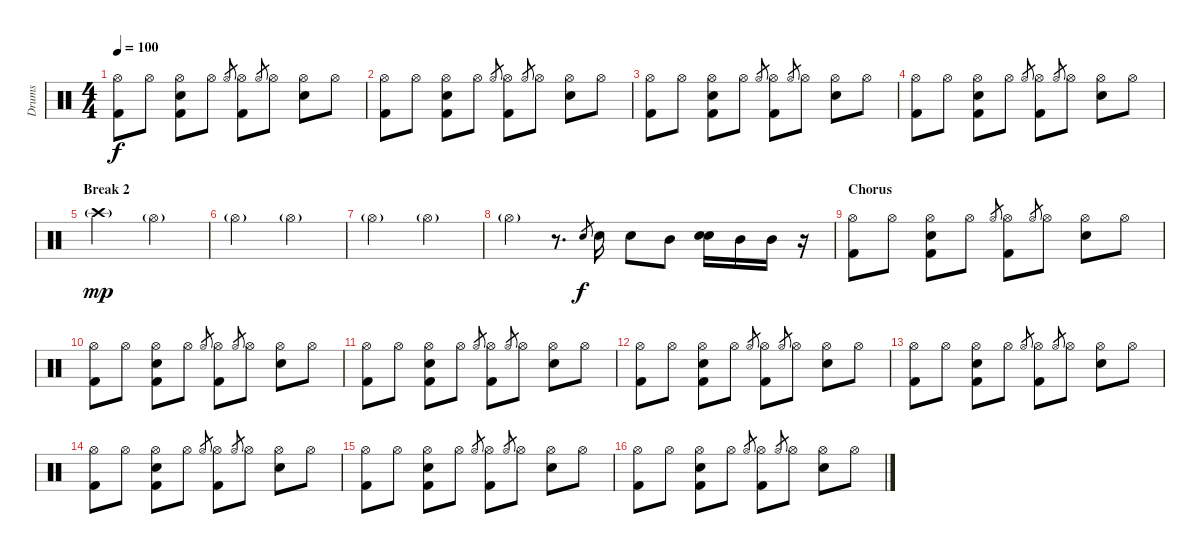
\track ("Drums" "Drums") {instrument percussion}
\staff {score}
\articulation defaults
\ts (4 4)
\tempo 100
\clef neutral
\ks c
("Hi-Hat (open)" "Kick (hit) 2").8{dy f} "Hi-Hat (open)".8 ("Electric Snare (hit)" "Hi-Hat (open)" "Kick (hit) 2").8 "Hi-Hat (open)".8 "Hi-Hat (open)".8{gr} ("Hi-Hat (open)" "Kick (hit) 2").8 "Hi-Hat (open)".8{gr} "Hi-Hat (open)".8 ("Electric Snare (hit)" "Hi-Hat (open)").8 "Hi-Hat (open)".8 |
("Hi-Hat (open)" "Kick (hit) 2").8 "Hi-Hat (open)".8 ("Electric Snare (hit)" "Hi-Hat (open)" "Kick (hit) 2").8 "Hi-Hat (open)".8 "Hi-Hat (open)".8{gr} ("Hi-Hat (open)" "Kick (hit) 2").8 "Hi-Hat (open)".8{gr} "Hi-Hat (open)".8 ("Electric Snare (hit)" "Hi-Hat (open)").8 "Hi-Hat (open)".8 |
("Hi-Hat (open)" "Kick (hit) 2").8 "Hi-Hat (open)".8 ("Electric Snare (hit)" "Hi-Hat (open)" "Kick (hit) 2").8 "Hi-Hat (open)".8 "Hi-Hat (open)".8{gr} ("Hi-Hat (open)" "Kick (hit) 2").8 "Hi-Hat (open)".8{gr} "Hi-Hat (open)".8 ("Electric Snare (hit)" "Hi-Hat (open)").8 "Hi-Hat (open)".8 |
("Hi-Hat (open)" "Kick (hit) 2").8 "Hi-Hat (open)".8 ("Electric Snare (hit)" "Hi-Hat (open)" "Kick (hit) 2").8 "Hi-Hat (open)".8 "Hi-Hat (open)".8{gr} ("Hi-Hat (open)" "Kick (hit) 2").8 "Hi-Hat (open)".8{gr} "Hi-Hat (open)".8 ("Electric Snare (hit)" "Hi-Hat (open)").8 "Hi-Hat (open)".8 |
\section ("" "Break 2")
"Crash high (hit)"{g}.2{dy mp} "Hi-Hat (open)"{g}.2 |
"Hi-Hat (open)"{g}.2 "Hi-Hat (open)"{g}.2 |
"Hi-Hat (open)"{g}.2 "Hi-Hat (open)"{g}.2 |
"Hi-Hat (open)"{g}.4 r.8{d} "Electric Snare (hit)".8{gr dy f} "Electric Snare (hit)".16 "Electric Snare (hit)".8 "Mid Tom (hit)".8 ("Electric Snare (hit)" "Electric Snare (hit)").16 "Mid Tom (hit)".16 "Mid Tom (hit)".16 r.16 |
\section ("" "Chorus")
("Hi-Hat (open)" "Kick (hit) 2").8 "Hi-Hat (open)".8 ("Electric Snare (hit)" "Hi-Hat (open)" "Kick (hit) 2").8 "Hi-Hat (open)".8 "Hi-Hat (open)".8{gr} ("Hi-Hat (open)" "Kick (hit) 2").8 "Hi-Hat (open)".8{gr} "Hi-Hat (open)".8 ("Electric Snare (hit)" "Hi-Hat (open)").8 "Hi-Hat (open)".8 |
("Hi-Hat (open)" "Kick (hit) 2").8 "Hi-Hat (open)".8 ("Electric Snare (hit)" "Hi-Hat (open)" "Kick (hit) 2").8 "Hi-Hat (open)".8 "Hi-Hat (open)".8{gr} ("Hi-Hat (open)" "Kick (hit) 2").8 "Hi-Hat (open)".8{gr} "Hi-Hat (open)".8 ("Electric Snare (hit)" "Hi-Hat (open)").8 "Hi-Hat (open)".8 |
("Hi-Hat (open)" "Kick (hit) 2").8 "Hi-Hat (open)".8 ("Electric Snare (hit)" "Hi-Hat (open)" "Kick (hit) 2").8 "Hi-Hat (open)".8 "Hi-Hat (open)".8{gr} ("Hi-Hat (open)" "Kick (hit) 2").8 "Hi-Hat (open)".8{gr} "Hi-Hat (open)".8 ("Electric Snare (hit)" "Hi-Hat (open)").8 "Hi-Hat (open)".8 |
("Hi-Hat (open)" "Kick (hit) 2").8 "Hi-Hat (open)".8 ("Electric Snare (hit)" "Hi-Hat (open)" "Kick (hit) 2").8 "Hi-Hat (open)".8 "Hi-Hat (open)".8{gr} ("Hi-Hat (open)" "Kick (hit) 2").8 "Hi-Hat (open)".8{gr} "Hi-Hat (open)".8 ("Electric Snare (hit)" "Hi-Hat (open)").8 "Hi-Hat (open)".8 |
("Hi-Hat (open)" "Kick (hit) 2").8 "Hi-Hat (open)".8 ("Electric Snare (hit)" "Hi-Hat (open)" "Kick (hit) 2").8 "Hi-Hat (open)".8 "Hi-Hat (open)".8{gr} ("Hi-Hat (open)" "Kick (hit) 2").8 "Hi-Hat (open)".8{gr} "Hi-Hat (open)".8 ("Electric Snare (hit)" "Hi-Hat (open)").8 "Hi-Hat (open)".8 |
("Hi-Hat (open)" "Kick (hit) 2").8 "Hi-Hat (open)".8 ("Electric Snare (hit)" "Hi-Hat (open)" "Kick (hit) 2").8 "Hi-Hat (open)".8 "Hi-Hat (open)".8{gr} ("Hi-Hat (open)" "Kick (hit) 2").8 "Hi-Hat (open)".8{gr} "Hi-Hat (open)".8 ("Electric Snare (hit)" "Hi-Hat (open)").8 "Hi-Hat (open)".8 |
("Hi-Hat (open)" "Kick (hit) 2").8 "Hi-Hat (open)".8 ("Electric Snare (hit)" "Hi-Hat (open)" "Kick (hit) 2").8 "Hi-Hat (open)".8 "Hi-Hat (open)".8{gr} ("Hi-Hat (open)" "Kick (hit) 2").8 "Hi-Hat (open)".8{gr} "Hi-Hat (open)".8 ("Electric Snare (hit)" "Hi-Hat (open)").8 "Hi-Hat (open)".8 |
("Hi-Hat (open)" "Kick (hit) 2").8 "Hi-Hat (open)".8 ("Electric Snare (hit)" "Hi-Hat (open)" "Kick (hit) 2").8 "Hi-Hat (open)".8 "Hi-Hat (open)".8{gr} ("Hi-Hat (open)" "Kick (hit) 2").8 "Hi-Hat (open)".8{gr} "Hi-Hat (open)".8 ("Electric Snare (hit)" "Hi-Hat (open)").8 "Hi-Hat (open)".8
